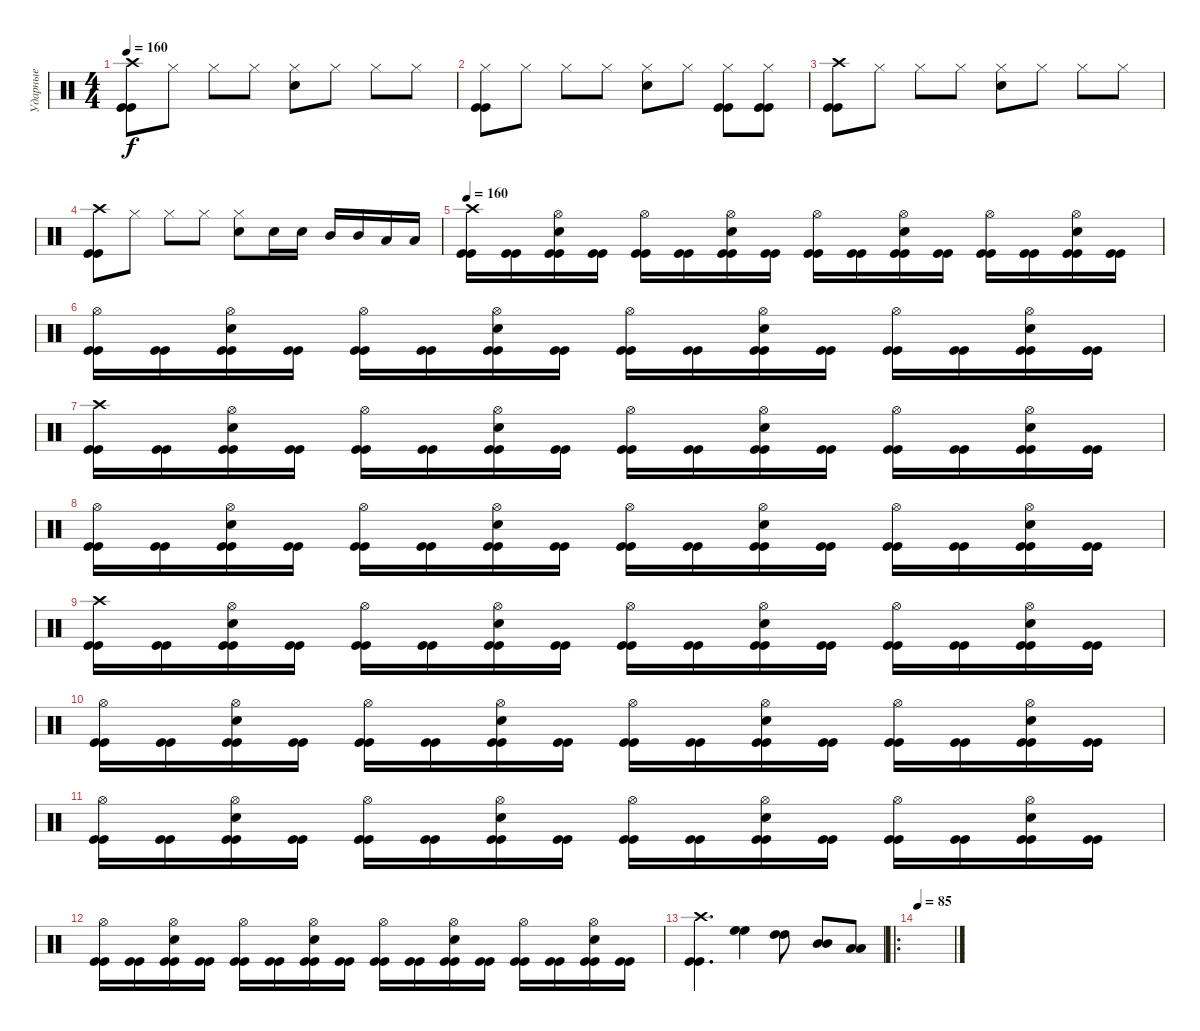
\track ("Ударные" "Ударные") {instrument percussion}
\staff {score}
\articulation defaults
\ts (4 4)
\tempo 160
\clef neutral
\ks c
("Crash high (hit)" "Kick (hit)" "Kick (hit)").8{dy f} "Hi-Hat (closed)".8 "Hi-Hat (closed)".8 "Hi-Hat (closed)".8 ("Hi-Hat (closed)" "Electric Snare (hit)").8 "Hi-Hat (closed)".8 "Hi-Hat (closed)".8 "Hi-Hat (closed)".8 |
("Hi-Hat (closed)" "Kick (hit)" "Kick (hit)").8 "Hi-Hat (closed)".8 "Hi-Hat (closed)".8 "Hi-Hat (closed)".8 ("Hi-Hat (closed)" "Electric Snare (hit)").8 "Hi-Hat (closed)".8 ("Hi-Hat (closed)" "Kick (hit)" "Kick (hit)").8 ("Hi-Hat (closed)" "Kick (hit)" "Kick (hit)").8 |
("Crash high (hit)" "Kick (hit)" "Kick (hit)").8 "Hi-Hat (closed)".8 "Hi-Hat (closed)".8 "Hi-Hat (closed)".8 ("Hi-Hat (closed)" "Electric Snare (hit)").8 "Hi-Hat (closed)".8 "Hi-Hat (closed)".8 "Hi-Hat (closed)".8 |
("Crash high (hit)" "Kick (hit)" "Kick (hit)").8 "Hi-Hat (closed)".8 "Hi-Hat (closed)".8 "Hi-Hat (closed)".8 ("Hi-Hat (closed)" "Electric Snare (hit)").8 "Electric Snare (hit)".16 "Electric Snare (hit)".16 "Mid Tom (hit)".16 "Mid Tom (hit)".16 "Low Tom (hit)".16 "Low Tom (hit)".16 |
\tempo 160
("Crash high (hit)" "Kick (hit)" "Kick (hit)").16 ("Kick (hit)" "Kick (hit)").16 ("Hi-Hat (open)" "Electric Snare (hit)" "Kick (hit)" "Kick (hit)").16 ("Kick (hit)" "Kick (hit)").16 ("Hi-Hat (open)" "Kick (hit)" "Kick (hit)").16 ("Kick (hit)" "Kick (hit)").16 ("Hi-Hat (open)" "Electric Snare (hit)" "Kick (hit)" "Kick (hit)").16 ("Kick (hit)" "Kick (hit)").16 ("Hi-Hat (open)" "Kick (hit)" "Kick (hit)").16 ("Kick (hit)" "Kick (hit)").16 ("Hi-Hat (open)" "Electric Snare (hit)" "Kick (hit)" "Kick (hit)").16 ("Kick (hit)" "Kick (hit)").16 ("Hi-Hat (open)" "Kick (hit)" "Kick (hit)").16 ("Kick (hit)" "Kick (hit)").16 ("Hi-Hat (open)" "Electric Snare (hit)" "Kick (hit)" "Kick (hit)").16 ("Kick (hit)" "Kick (hit)").16 |
("Hi-Hat (open)" "Kick (hit)" "Kick (hit)").16 ("Kick (hit)" "Kick (hit)").16 ("Hi-Hat (open)" "Electric Snare (hit)" "Kick (hit)" "Kick (hit)").16 ("Kick (hit)" "Kick (hit)").16 ("Hi-Hat (open)" "Kick (hit)" "Kick (hit)").16 ("Kick (hit)" "Kick (hit)").16 ("Hi-Hat (open)" "Electric Snare (hit)" "Kick (hit)" "Kick (hit)").16 ("Kick (hit)" "Kick (hit)").16 ("Hi-Hat (open)" "Kick (hit)" "Kick (hit)").16 ("Kick (hit)" "Kick (hit)").16 ("Hi-Hat (open)" "Electric Snare (hit)" "Kick (hit)" "Kick (hit)").16 ("Kick (hit)" "Kick (hit)").16 ("Hi-Hat (open)" "Kick (hit)" "Kick (hit)").16 ("Kick (hit)" "Kick (hit)").16 ("Hi-Hat (open)" "Electric Snare (hit)" "Kick (hit)" "Kick (hit)").16 ("Kick (hit)" "Kick (hit)").16 |
("Crash high (hit)" "Kick (hit)" "Kick (hit)").16 ("Kick (hit)" "Kick (hit)").16 ("Hi-Hat (open)" "Electric Snare (hit)" "Kick (hit)" "Kick (hit)").16 ("Kick (hit)" "Kick (hit)").16 ("Hi-Hat (open)" "Kick (hit)" "Kick (hit)").16 ("Kick (hit)" "Kick (hit)").16 ("Hi-Hat (open)" "Electric Snare (hit)" "Kick (hit)" "Kick (hit)").16 ("Kick (hit)" "Kick (hit)").16 ("Hi-Hat (open)" "Kick (hit)" "Kick (hit)").16 ("Kick (hit)" "Kick (hit)").16 ("Hi-Hat (open)" "Electric Snare (hit)" "Kick (hit)" "Kick (hit)").16 ("Kick (hit)" "Kick (hit)").16 ("Hi-Hat (open)" "Kick (hit)" "Kick (hit)").16 ("Kick (hit)" "Kick (hit)").16 ("Hi-Hat (open)" "Electric Snare (hit)" "Kick (hit)" "Kick (hit)").16 ("Kick (hit)" "Kick (hit)").16 |
("Hi-Hat (open)" "Kick (hit)" "Kick (hit)").16 ("Kick (hit)" "Kick (hit)").16 ("Hi-Hat (open)" "Electric Snare (hit)" "Kick (hit)" "Kick (hit)").16 ("Kick (hit)" "Kick (hit)").16 ("Hi-Hat (open)" "Kick (hit)" "Kick (hit)").16 ("Kick (hit)" "Kick (hit)").16 ("Hi-Hat (open)" "Electric Snare (hit)" "Kick (hit)" "Kick (hit)").16 ("Kick (hit)" "Kick (hit)").16 ("Hi-Hat (open)" "Kick (hit)" "Kick (hit)").16 ("Kick (hit)" "Kick (hit)").16 ("Hi-Hat (open)" "Electric Snare (hit)" "Kick (hit)" "Kick (hit)").16 ("Kick (hit)" "Kick (hit)").16 ("Hi-Hat (open)" "Kick (hit)" "Kick (hit)").16 ("Kick (hit)" "Kick (hit)").16 ("Hi-Hat (open)" "Electric Snare (hit)" "Kick (hit)" "Kick (hit)").16 ("Kick (hit)" "Kick (hit)").16 |
("Crash high (hit)" "Kick (hit)" "Kick (hit)").16 ("Kick (hit)" "Kick (hit)").16 ("Hi-Hat (open)" "Electric Snare (hit)" "Kick (hit)" "Kick (hit)").16 ("Kick (hit)" "Kick (hit)").16 ("Hi-Hat (open)" "Kick (hit)" "Kick (hit)").16 ("Kick (hit)" "Kick (hit)").16 ("Hi-Hat (open)" "Electric Snare (hit)" "Kick (hit)" "Kick (hit)").16 ("Kick (hit)" "Kick (hit)").16 ("Hi-Hat (open)" "Kick (hit)" "Kick (hit)").16 ("Kick (hit)" "Kick (hit)").16 ("Hi-Hat (open)" "Electric Snare (hit)" "Kick (hit)" "Kick (hit)").16 ("Kick (hit)" "Kick (hit)").16 ("Hi-Hat (open)" "Kick (hit)" "Kick (hit)").16 ("Kick (hit)" "Kick (hit)").16 ("Hi-Hat (open)" "Electric Snare (hit)" "Kick (hit)" "Kick (hit)").16 ("Kick (hit)" "Kick (hit)").16 |
("Hi-Hat (open)" "Kick (hit)" "Kick (hit)").16 ("Kick (hit)" "Kick (hit)").16 ("Hi-Hat (open)" "Electric Snare (hit)" "Kick (hit)" "Kick (hit)").16 ("Kick (hit)" "Kick (hit)").16 ("Hi-Hat (open)" "Kick (hit)" "Kick (hit)").16 ("Kick (hit)" "Kick (hit)").16 ("Hi-Hat (open)" "Electric Snare (hit)" "Kick (hit)" "Kick (hit)").16 ("Kick (hit)" "Kick (hit)").16 ("Hi-Hat (open)" "Kick (hit)" "Kick (hit)").16 ("Kick (hit)" "Kick (hit)").16 ("Hi-Hat (open)" "Electric Snare (hit)" "Kick (hit)" "Kick (hit)").16 ("Kick (hit)" "Kick (hit)").16 ("Hi-Hat (open)" "Kick (hit)" "Kick (hit)").16 ("Kick (hit)" "Kick (hit)").16 ("Hi-Hat (open)" "Electric Snare (hit)" "Kick (hit)" "Kick (hit)").16 ("Kick (hit)" "Kick (hit)").16 |
("Hi-Hat (open)" "Kick (hit)" "Kick (hit)").16 ("Kick (hit)" "Kick (hit)").16 ("Hi-Hat (open)" "Electric Snare (hit)" "Kick (hit)" "Kick (hit)").16 ("Kick (hit)" "Kick (hit)").16 ("Hi-Hat (open)" "Kick (hit)" "Kick (hit)").16 ("Kick (hit)" "Kick (hit)").16 ("Hi-Hat (open)" "Electric Snare (hit)" "Kick (hit)" "Kick (hit)").16 ("Kick (hit)" "Kick (hit)").16 ("Hi-Hat (open)" "Kick (hit)" "Kick (hit)").16 ("Kick (hit)" "Kick (hit)").16 ("Hi-Hat (open)" "Electric Snare (hit)" "Kick (hit)" "Kick (hit)").16 ("Kick (hit)" "Kick (hit)").16 ("Hi-Hat (open)" "Kick (hit)" "Kick (hit)").16 ("Kick (hit)" "Kick (hit)").16 ("Hi-Hat (open)" "Electric Snare (hit)" "Kick (hit)" "Kick (hit)").16 ("Kick (hit)" "Kick (hit)").16 |
("Hi-Hat (open)" "Kick (hit)" "Kick (hit)").16 ("Kick (hit)" "Kick (hit)").16 ("Hi-Hat (open)" "Electric Snare (hit)" "Kick (hit)" "Kick (hit)").16 ("Kick (hit)" "Kick (hit)").16 ("Hi-Hat (open)" "Kick (hit)" "Kick (hit)").16 ("Kick (hit)" "Kick (hit)").16 ("Hi-Hat (open)" "Electric Snare (hit)" "Kick (hit)" "Kick (hit)").16 ("Kick (hit)" "Kick (hit)").16 ("Hi-Hat (open)" "Kick (hit)" "Kick (hit)").16 ("Kick (hit)" "Kick (hit)").16 ("Hi-Hat (open)" "Electric Snare (hit)" "Kick (hit)" "Kick (hit)").16 ("Kick (hit)" "Kick (hit)").16 ("Hi-Hat (open)" "Kick (hit)" "Kick (hit)").16 ("Kick (hit)" "Kick (hit)").16 ("Hi-Hat (open)" "Electric Snare (hit)" "Kick (hit)" "Kick (hit)").16 ("Kick (hit)" "Kick (hit)").16 |
("Crash high (hit)" "Kick (hit)" "Kick (hit)").4{d} ("High Floor Tom (hit)" "High Floor Tom (hit)").4 ("High Tom (hit)" "High Tom (hit)").8 ("Mid Tom (hit)" "Mid Tom (hit)").8 ("Low Tom (hit)" "Low Tom (hit)").8 |
\ro
\tempo 85
